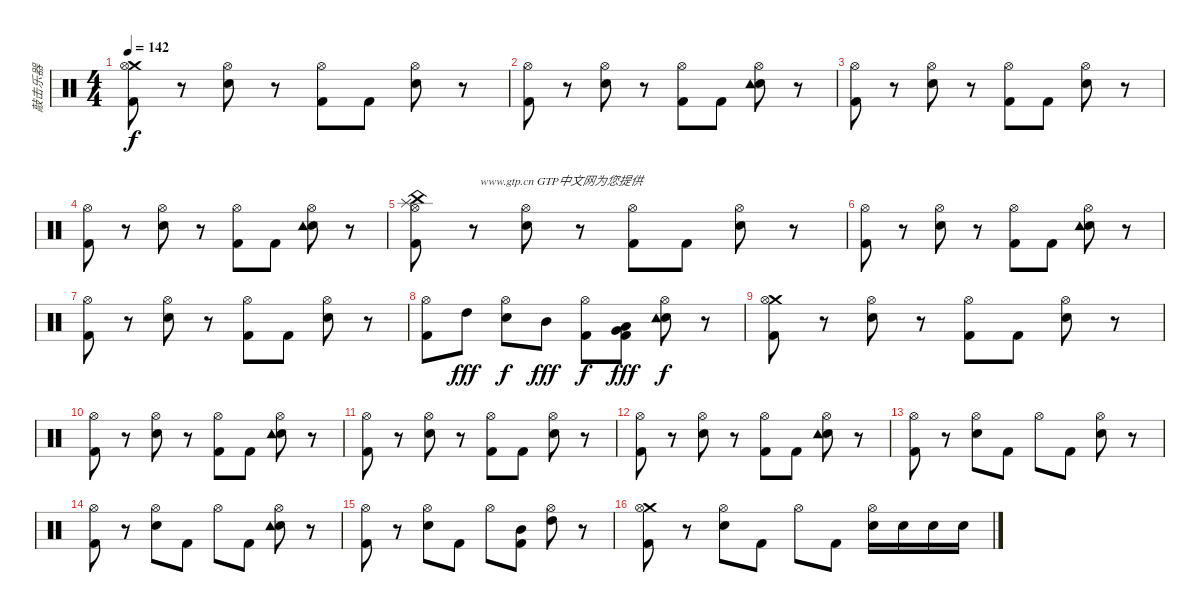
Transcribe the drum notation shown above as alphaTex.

\track ("敲击乐器" "敲击乐器") {instrument percussion}
\staff {score}
\articulation defaults
\ts (4 4)
\tempo 142
\clef neutral
\ks c
("Crash medium (hit)" "Hi-Hat (open)" "Kick (hit) 2").8{dy f} r.8 ("Snare (hit) 2" "Hi-Hat (open)").8 r.8 ("Hi-Hat (open)" "Kick (hit) 2").8 "Kick (hit) 2".8 ("Snare (hit) 2" "Hi-Hat (open)").8 r.8 |
("Hi-Hat (open)" "Kick (hit) 2").8 r.8 ("Snare (hit) 2" "Hi-Hat (open)").8 r.8 ("Hi-Hat (open)" "Kick (hit) 2").8 "Kick (hit) 2".8 ("Snare (hit) 2" "Tambourine (hit)" "Hi-Hat (open)").8 r.8 |
("Hi-Hat (open)" "Kick (hit) 2").8 r.8 ("Snare (hit) 2" "Hi-Hat (open)").8 r.8 ("Hi-Hat (open)" "Kick (hit) 2").8 "Kick (hit) 2".8 ("Snare (hit) 2" "Hi-Hat (open)").8 r.8 |
("Hi-Hat (open)" "Kick (hit) 2").8 r.8 ("Snare (hit) 2" "Hi-Hat (open)").8 r.8 ("Hi-Hat (open)" "Kick (hit) 2").8 "Kick (hit) 2".8 ("Snare (hit) 2" "Tambourine (hit)" "Hi-Hat (open)").8 r.8 |
("China (hit)" "Splash (hit)" "Hi-Hat (open)" "Kick (hit) 2").8{txt "                    www.gtp.cn GTP中文网为您提供"} r.8 ("Snare (hit) 2" "Hi-Hat (open)").8 r.8 ("Hi-Hat (open)" "Kick (hit) 2").8 "Kick (hit) 2".8 ("Snare (hit) 2" "Hi-Hat (open)").8 r.8 |
("Hi-Hat (open)" "Kick (hit) 2").8 r.8 ("Snare (hit) 2" "Hi-Hat (open)").8 r.8 ("Hi-Hat (open)" "Kick (hit) 2").8 "Kick (hit) 2".8 ("Snare (hit) 2" "Tambourine (hit)" "Hi-Hat (open)").8 r.8 |
("Hi-Hat (open)" "Kick (hit) 2").8 r.8 ("Snare (hit) 2" "Hi-Hat (open)").8 r.8 ("Hi-Hat (open)" "Kick (hit) 2").8 "Kick (hit) 2".8 ("Snare (hit) 2" "Hi-Hat (open)").8 r.8 |
("Hi-Hat (open)" "Kick (hit) 2").8 "High Tom (hit)".8{dy fff} ("Snare (hit) 2" "Hi-Hat (open)").8{dy f} "Mid Tom (hit)".8{dy fff} ("Hi-Hat (open)" "Kick (hit) 2").8{dy f} ("Very Low Tom (hit)" "Low Floor Tom (hit)" "Kick (hit) 2").8{dy fff} ("Snare (hit) 2" "Tambourine (hit)" "Hi-Hat (open)").8{dy f} r.8 |
("Crash medium (hit)" "Hi-Hat (open)" "Kick (hit) 2").8 r.8 ("Snare (hit) 2" "Hi-Hat (open)").8 r.8 ("Hi-Hat (open)" "Kick (hit) 2").8 "Kick (hit) 2".8 ("Snare (hit) 2" "Hi-Hat (open)").8 r.8 |
("Hi-Hat (open)" "Kick (hit) 2").8 r.8 ("Snare (hit) 2" "Hi-Hat (open)").8 r.8 ("Hi-Hat (open)" "Kick (hit) 2").8 "Kick (hit) 2".8 ("Snare (hit) 2" "Tambourine (hit)" "Hi-Hat (open)").8 r.8 |
("Hi-Hat (open)" "Kick (hit) 2").8 r.8 ("Snare (hit) 2" "Hi-Hat (open)").8 r.8 ("Hi-Hat (open)" "Kick (hit) 2").8 "Kick (hit) 2".8 ("Snare (hit) 2" "Hi-Hat (open)").8 r.8 |
("Hi-Hat (open)" "Kick (hit) 2").8 r.8 ("Snare (hit) 2" "Hi-Hat (open)").8 r.8 ("Hi-Hat (open)" "Kick (hit) 2").8 "Kick (hit) 2".8 ("Snare (hit) 2" "Tambourine (hit)" "Hi-Hat (open)").8 r.8 |
("Hi-Hat (open)" "Kick (hit) 2").8 r.8 ("Snare (hit) 2" "Hi-Hat (open)").8 "Kick (hit) 2".8 "Hi-Hat (open)".8 "Kick (hit) 2".8 ("Snare (hit) 2" "Hi-Hat (open)").8 r.8 |
("Hi-Hat (open)" "Kick (hit) 2").8 r.8 ("Snare (hit) 2" "Hi-Hat (open)").8 "Kick (hit) 2".8 "Hi-Hat (open)".8 "Kick (hit) 2".8 ("Snare (hit) 2" "Tambourine (hit)" "Hi-Hat (open)").8 r.8 |
("Hi-Hat (open)" "Kick (hit) 2").8 r.8 ("Snare (hit) 2" "Hi-Hat (open)").8 "Kick (hit) 2".8 "Hi-Hat (open)".8 ("Mid Tom (hit)" "Kick (hit) 2").8 ("High Tom (hit)" "Hi-Hat (open)").8 r.8 |
("Crash medium (hit)" "Hi-Hat (open)" "Kick (hit) 2").8 r.8 ("Snare (hit) 2" "Hi-Hat (open)").8 "Kick (hit) 2".8 "Hi-Hat (open)".8 "Kick (hit) 2".8 ("Snare (hit) 2" "Hi-Hat (open)").16 "Snare (hit) 2".16 "Snare (hit) 2".16 "Snare (hit) 2".16
